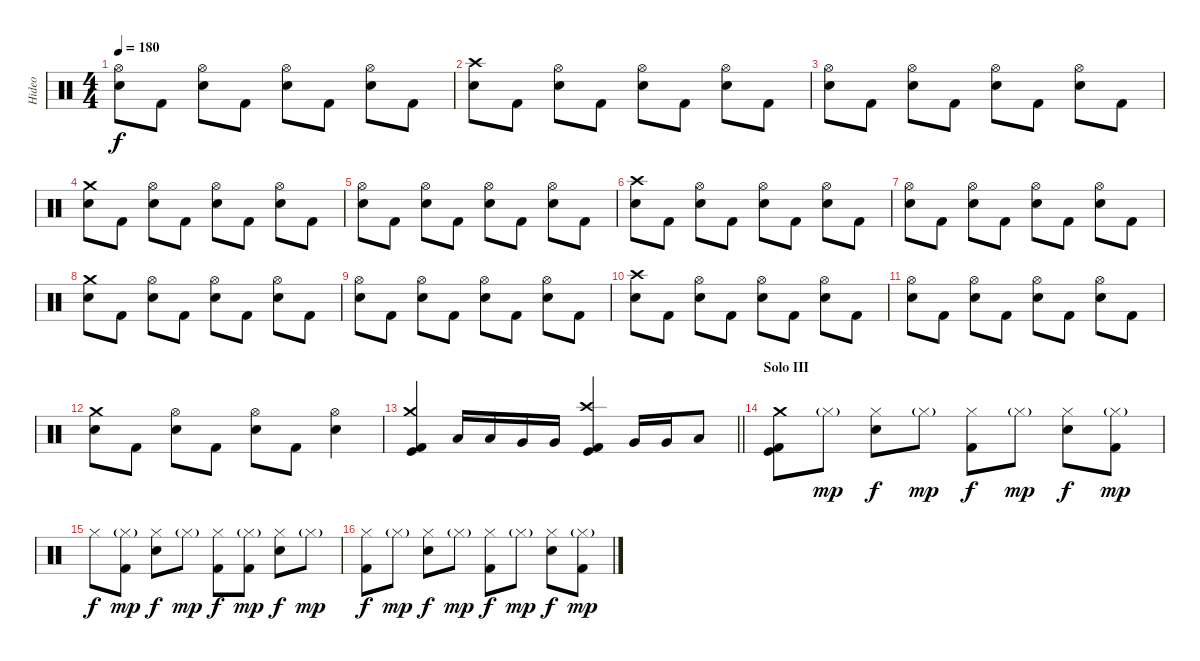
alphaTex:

\track ("Hideo" "Hideo") {instrument percussion}
\staff {score}
\articulation defaults
\ts (4 4)
\tempo 180
\clef neutral
\ks c
("Hi-Hat (open)" "Electric Snare (hit)").8{dy f} "Kick (hit) 2".8 ("Hi-Hat (open)" "Electric Snare (hit)").8 "Kick (hit) 2".8 ("Hi-Hat (open)" "Electric Snare (hit)").8 "Kick (hit) 2".8 ("Hi-Hat (open)" "Electric Snare (hit)").8 "Kick (hit) 2".8 |
("Crash high (hit)" "Electric Snare (hit)").8 "Kick (hit) 2".8 ("Hi-Hat (open)" "Electric Snare (hit)").8 "Kick (hit) 2".8 ("Hi-Hat (open)" "Electric Snare (hit)").8 "Kick (hit) 2".8 ("Hi-Hat (open)" "Electric Snare (hit)").8 "Kick (hit) 2".8 |
("Hi-Hat (open)" "Electric Snare (hit)").8 "Kick (hit) 2".8 ("Hi-Hat (open)" "Electric Snare (hit)").8 "Kick (hit) 2".8 ("Hi-Hat (open)" "Electric Snare (hit)").8 "Kick (hit) 2".8 ("Hi-Hat (open)" "Electric Snare (hit)").8 "Kick (hit) 2".8 |
("Crash medium (hit)" "Electric Snare (hit)").8 "Kick (hit) 2".8 ("Hi-Hat (open)" "Electric Snare (hit)").8 "Kick (hit) 2".8 ("Hi-Hat (open)" "Electric Snare (hit)").8 "Kick (hit) 2".8 ("Hi-Hat (open)" "Electric Snare (hit)").8 "Kick (hit) 2".8 |
("Hi-Hat (open)" "Electric Snare (hit)").8 "Kick (hit) 2".8 ("Hi-Hat (open)" "Electric Snare (hit)").8 "Kick (hit) 2".8 ("Hi-Hat (open)" "Electric Snare (hit)").8 "Kick (hit) 2".8 ("Hi-Hat (open)" "Electric Snare (hit)").8 "Kick (hit) 2".8 |
("Crash high (hit)" "Electric Snare (hit)").8 "Kick (hit) 2".8 ("Hi-Hat (open)" "Electric Snare (hit)").8 "Kick (hit) 2".8 ("Hi-Hat (open)" "Electric Snare (hit)").8 "Kick (hit) 2".8 ("Hi-Hat (open)" "Electric Snare (hit)").8 "Kick (hit) 2".8 |
("Hi-Hat (open)" "Electric Snare (hit)").8 "Kick (hit) 2".8 ("Hi-Hat (open)" "Electric Snare (hit)").8 "Kick (hit) 2".8 ("Hi-Hat (open)" "Electric Snare (hit)").8 "Kick (hit) 2".8 ("Hi-Hat (open)" "Electric Snare (hit)").8 "Kick (hit) 2".8 |
("Crash medium (hit)" "Electric Snare (hit)").8 "Kick (hit) 2".8 ("Hi-Hat (open)" "Electric Snare (hit)").8 "Kick (hit) 2".8 ("Hi-Hat (open)" "Electric Snare (hit)").8 "Kick (hit) 2".8 ("Hi-Hat (open)" "Electric Snare (hit)").8 "Kick (hit) 2".8 |
("Hi-Hat (open)" "Electric Snare (hit)").8 "Kick (hit) 2".8 ("Hi-Hat (open)" "Electric Snare (hit)").8 "Kick (hit) 2".8 ("Hi-Hat (open)" "Electric Snare (hit)").8 "Kick (hit) 2".8 ("Hi-Hat (open)" "Electric Snare (hit)").8 "Kick (hit) 2".8 |
("Crash high (hit)" "Electric Snare (hit)").8 "Kick (hit) 2".8 ("Hi-Hat (open)" "Electric Snare (hit)").8 "Kick (hit) 2".8 ("Hi-Hat (open)" "Electric Snare (hit)").8 "Kick (hit) 2".8 ("Hi-Hat (open)" "Electric Snare (hit)").8 "Kick (hit) 2".8 |
("Hi-Hat (open)" "Electric Snare (hit)").8 "Kick (hit) 2".8 ("Hi-Hat (open)" "Electric Snare (hit)").8 "Kick (hit) 2".8 ("Hi-Hat (open)" "Electric Snare (hit)").8 "Kick (hit) 2".8 ("Hi-Hat (open)" "Electric Snare (hit)").8 "Kick (hit) 2".8 |
("Crash medium (hit)" "Electric Snare (hit)").8 "Kick (hit) 2".8 ("Hi-Hat (open)" "Electric Snare (hit)").8 "Kick (hit) 2".8 ("Hi-Hat (open)" "Electric Snare (hit)").8 "Kick (hit) 2".8 ("Hi-Hat (open)" "Electric Snare (hit)").4 |
\barLineRight lightlight
("Crash medium (hit)" "Kick (hit) 2" "Kick (hit)").4 "Low Tom (hit)".16 "Low Tom (hit)".16 "Very Low Tom (hit)".16 "Very Low Tom (hit)".16 ("Crash high (hit)" "Kick (hit) 2" "Kick (hit)").4 "Very Low Tom (hit)".16 "Very Low Tom (hit)".16 "Low Floor Tom (hit)".8 |
\section ("" "Solo III")
("Crash medium (hit)" "Kick (hit) 2" "Kick (hit)").8 "Hi-Hat (closed)"{g}.8{dy mp} ("Hi-Hat (closed)" "Electric Snare (hit)").8{dy f} "Hi-Hat (closed)"{g}.8{dy mp} ("Hi-Hat (closed)" "Kick (hit) 2").8{dy f} "Hi-Hat (closed)"{g}.8{dy mp} ("Hi-Hat (closed)" "Electric Snare (hit)").8{dy f} ("Hi-Hat (closed)"{g} "Kick (hit) 2").8{dy mp} |
"Hi-Hat (closed)".8{dy f} ("Hi-Hat (closed)"{g} "Kick (hit) 2").8{dy mp} ("Hi-Hat (closed)" "Electric Snare (hit)").8{dy f} "Hi-Hat (closed)"{g}.8{dy mp} ("Hi-Hat (closed)" "Kick (hit) 2").8{dy f} ("Hi-Hat (closed)"{g} "Kick (hit) 2").8{dy mp} ("Hi-Hat (closed)" "Electric Snare (hit)").8{dy f} "Hi-Hat (closed)"{g}.8{dy mp} |
("Hi-Hat (closed)" "Kick (hit) 2").8{dy f} "Hi-Hat (closed)"{g}.8{dy mp} ("Hi-Hat (closed)" "Electric Snare (hit)").8{dy f} "Hi-Hat (closed)"{g}.8{dy mp} ("Hi-Hat (closed)" "Kick (hit) 2").8{dy f} "Hi-Hat (closed)"{g}.8{dy mp} ("Hi-Hat (closed)" "Electric Snare (hit)").8{dy f} ("Hi-Hat (closed)"{g} "Kick (hit) 2").8{dy mp}
